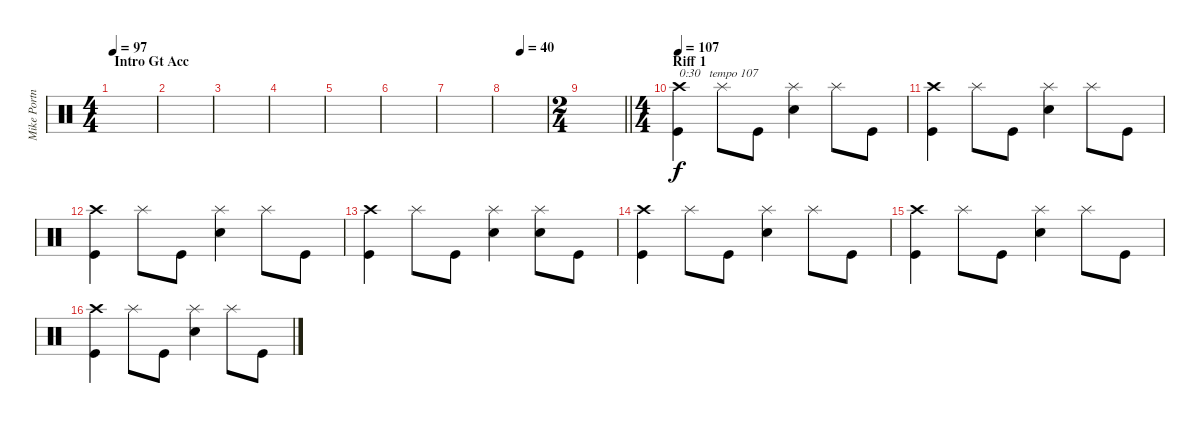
\track ("Mike Portnoy" "Mike Portn") {instrument percussion}
\staff {score}
\articulation defaults
\ts (4 4)
\section ("" "Intro Gt Acc")
\tempo 97
\tempo 72
\tempo 97
\clef neutral
\ks c
|
|
|
|
|
|
|
\tempo (40 0.375)
|
\ts (2 4)
\barLineRight lightlight
|
\ts (4 4)
\section ("" "Riff 1")
\tempo 107
("Crash high (hit)" "Kick (hit)").4{txt "0:30   tempo 107"} "Splash (hit)".8 "Kick (hit)".8 ("Splash (hit)" "Snare (hit) 2").4 "Splash (hit)".8 "Kick (hit)".8 |
("Crash high (hit)" "Kick (hit)").4 "Splash (hit)".8 "Kick (hit)".8 ("Splash (hit)" "Snare (hit) 2").4 "Splash (hit)".8 "Kick (hit)".8 |
("Crash high (hit)" "Kick (hit)").4 "Splash (hit)".8 "Kick (hit)".8 ("Splash (hit)" "Snare (hit) 2").4 "Splash (hit)".8 "Kick (hit)".8 |
("Crash high (hit)" "Kick (hit)").4 "Splash (hit)".8 "Kick (hit)".8 ("Splash (hit)" "Snare (hit) 2").4 ("Splash (hit)" "Snare (hit) 2").8 "Kick (hit)".8 |
("Crash high (hit)" "Kick (hit)").4 "Splash (hit)".8 "Kick (hit)".8 ("Splash (hit)" "Snare (hit) 2").4 "Splash (hit)".8 "Kick (hit)".8 |
("Crash high (hit)" "Kick (hit)").4 "Splash (hit)".8 "Kick (hit)".8 ("Splash (hit)" "Snare (hit) 2").4 "Splash (hit)".8 "Kick (hit)".8 |
("Crash high (hit)" "Kick (hit)").4 "Splash (hit)".8 "Kick (hit)".8 ("Splash (hit)" "Snare (hit) 2").4 "Splash (hit)".8 "Kick (hit)".8
